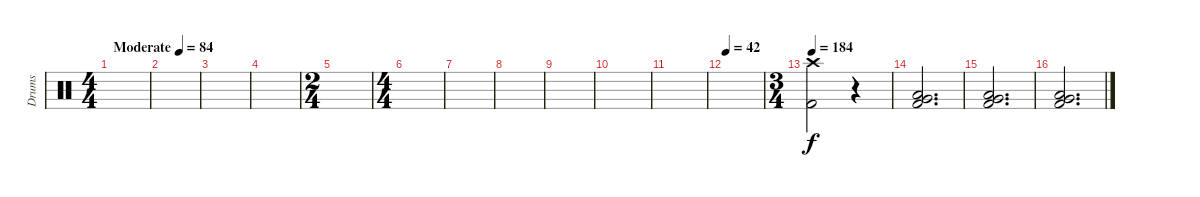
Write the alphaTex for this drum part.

\track ("Drums" "Drums") {instrument percussion}
\staff {score}
\articulation defaults
\ts (4 4)
\tempo (84 "Moderate")
\clef neutral
\ks c
|
|
|
|
\ts (2 4)
|
\ts (4 4)
|
|
|
|
|
|
\tempo 42
|
\ts (3 4)
\tempo 184
("Crash high (hit)" "Kick (hit) 2").2 r.4 |
("Low Floor Tom (hit)" "Very Low Tom (hit)" "Kick (hit) 2").2{d} |
("Low Floor Tom (hit)" "Very Low Tom (hit)" "Kick (hit) 2").2{d} |
("Low Floor Tom (hit)" "Very Low Tom (hit)" "Kick (hit) 2").2{d}
